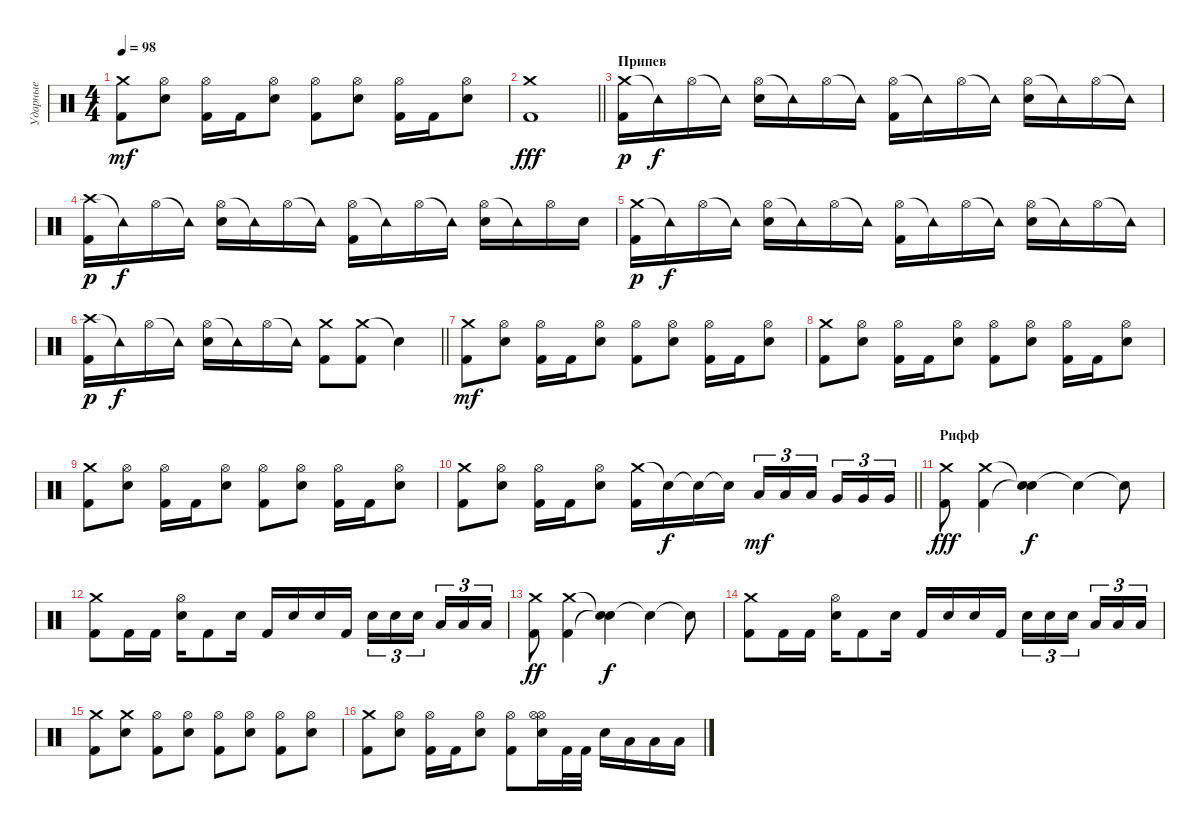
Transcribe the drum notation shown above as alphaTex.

\track ("Ударные" "Ударные") {instrument percussion}
\staff {score}
\articulation defaults
\ts (4 4)
\tempo 98
\clef neutral
\ks c
("Crash medium (hit)" "Kick (hit) 2").8{dy mf} ("Hi-Hat (open)" "Snare (hit) 2").8 ("Hi-Hat (open)" "Kick (hit) 2").16 "Kick (hit) 2".16 ("Hi-Hat (open)" "Snare (hit) 2").8 ("Hi-Hat (open)" "Kick (hit) 2").8 ("Hi-Hat (open)" "Snare (hit) 2").8 ("Hi-Hat (open)" "Kick (hit) 2").16 "Kick (hit) 2".16 ("Hi-Hat (open)" "Snare (hit) 2").8 |
\barLineRight lightlight
("Crash medium (hit)" "Kick (hit) 2").1{dy fff} |
\section ("" "Припев")
("Crash medium (hit)" "Kick (hit) 2").16{dy p} "Tambourine (hit)"{t}.16{dy f} "Hi-Hat (open)".16 "Tambourine (hit)"{t}.16 ("Hi-Hat (open)" "Snare (hit) 2").16 "Tambourine (hit)"{t}.16 "Hi-Hat (open)".16 "Tambourine (hit)"{t}.16 ("Hi-Hat (open)" "Kick (hit) 2").16 "Tambourine (hit)"{t}.16 "Hi-Hat (open)".16 "Tambourine (hit)"{t}.16 ("Hi-Hat (open)" "Snare (hit) 2").16 "Tambourine (hit)"{t}.16 "Hi-Hat (open)".16 "Tambourine (hit)"{t}.16 |
("Crash high (hit)" "Kick (hit) 2").16{dy p} "Tambourine (hit)"{t}.16{dy f} "Hi-Hat (open)".16 "Tambourine (hit)"{t}.16 ("Hi-Hat (open)" "Snare (hit) 2").16 "Tambourine (hit)"{t}.16 "Hi-Hat (open)".16 "Tambourine (hit)"{t}.16 ("Hi-Hat (open)" "Kick (hit) 2").16 "Tambourine (hit)"{t}.16 "Hi-Hat (open)".16 "Tambourine (hit)"{t}.16 ("Hi-Hat (open)" "Snare (hit) 2").16 "Tambourine (hit)"{t}.16 "Hi-Hat (open)".16 "Snare (hit) 2".16 |
("Crash medium (hit)" "Kick (hit) 2").16{dy p} "Tambourine (hit)"{t}.16{dy f} "Hi-Hat (open)".16 "Tambourine (hit)"{t}.16 ("Hi-Hat (open)" "Snare (hit) 2").16 "Tambourine (hit)"{t}.16 "Hi-Hat (open)".16 "Tambourine (hit)"{t}.16 ("Hi-Hat (open)" "Kick (hit) 2").16 "Tambourine (hit)"{t}.16 "Hi-Hat (open)".16 "Tambourine (hit)"{t}.16 ("Hi-Hat (open)" "Snare (hit) 2").16 "Tambourine (hit)"{t}.16 "Hi-Hat (open)".16 "Tambourine (hit)"{t}.16 |
\barLineRight lightlight
("Crash high (hit)" "Kick (hit) 2").16{dy p} "Tambourine (hit)"{t}.16{dy f} "Hi-Hat (open)".16 "Tambourine (hit)"{t}.16 ("Hi-Hat (open)" "Snare (hit) 2").16 "Tambourine (hit)"{t}.16 "Hi-Hat (open)".16 "Tambourine (hit)"{t}.16 ("Crash medium (hit)" "Kick (hit) 2").8 ("Crash medium (hit)" "Kick (hit) 2").8 "Snare (hit)"{t}.4 |
("Crash medium (hit)" "Kick (hit) 2").8{dy mf} ("Hi-Hat (open)" "Snare (hit) 2").8 ("Hi-Hat (open)" "Kick (hit) 2").16 "Kick (hit) 2".16 ("Hi-Hat (open)" "Snare (hit) 2").8 ("Hi-Hat (open)" "Kick (hit) 2").8 ("Hi-Hat (open)" "Snare (hit) 2").8 ("Hi-Hat (open)" "Kick (hit) 2").16 "Kick (hit) 2".16 ("Hi-Hat (open)" "Snare (hit) 2").8 |
("Crash medium (hit)" "Kick (hit) 2").8 ("Hi-Hat (open)" "Snare (hit) 2").8 ("Hi-Hat (open)" "Kick (hit) 2").16 "Kick (hit) 2".16 ("Hi-Hat (open)" "Snare (hit) 2").8 ("Hi-Hat (open)" "Kick (hit) 2").8 ("Hi-Hat (open)" "Snare (hit) 2").8 ("Hi-Hat (open)" "Kick (hit) 2").16 "Kick (hit) 2".16 ("Hi-Hat (open)" "Snare (hit) 2").8 |
("Crash medium (hit)" "Kick (hit) 2").8 ("Hi-Hat (open)" "Snare (hit) 2").8 ("Hi-Hat (open)" "Kick (hit) 2").16 "Kick (hit) 2".16 ("Hi-Hat (open)" "Snare (hit) 2").8 ("Hi-Hat (open)" "Kick (hit) 2").8 ("Hi-Hat (open)" "Snare (hit) 2").8 ("Hi-Hat (open)" "Kick (hit) 2").16 "Kick (hit) 2".16 ("Hi-Hat (open)" "Snare (hit) 2").8 |
\barLineRight lightlight
("Crash medium (hit)" "Kick (hit) 2").8 ("Hi-Hat (open)" "Snare (hit) 2").8 ("Hi-Hat (open)" "Kick (hit) 2").16 "Kick (hit) 2".16 ("Hi-Hat (open)" "Snare (hit) 2").8 ("Crash medium (hit)" "Kick (hit) 2").16 "Snare (hit) 2"{t}.16{dy f} "Snare (hit) 2"{t}.16 "Snare (hit) 2"{t}.16 "Low Tom (hit)".16{tu (3 2) dy mf} "Low Tom (hit)".16{tu (3 2)} "Low Tom (hit)".16{tu (3 2) beam splitsecondary} "Very Low Tom (hit)".16{tu (3 2)} "Very Low Tom (hit)".16{tu (3 2)} "Very Low Tom (hit)".16{tu (3 2)} |
\section ("" "Рифф")
("Crash medium (hit)" "Kick (hit) 2").8{dy fff} ("Kick (hit) 2" "Crash medium (hit)").4 ("Snare (hit)"{t} "Snare (hit)"{t}).4{dy f} "Snare (hit)"{t}.4 "Snare (hit)"{t}.8 |
("Crash medium (hit)" "Kick (hit) 2").8 "Kick (hit) 2".16 "Kick (hit) 2".16 ("Hi-Hat (open)" "Snare (hit) 2").16 "Kick (hit) 2".8 "Snare (hit) 2".16 "Kick (hit) 2".16 "Snare (hit) 2".16 "Snare (hit) 2".16 "Kick (hit) 2".16 "Snare (hit) 2".16{tu (3 2)} "Snare (hit) 2".16{tu (3 2)} "Snare (hit) 2".16{tu (3 2) beam splitsecondary} "Low Tom (hit)".16{tu (3 2)} "Low Tom (hit)".16{tu (3 2)} "Low Tom (hit)".16{tu (3 2)} |
("Crash medium (hit)" "Kick (hit) 2").8{dy ff} ("Kick (hit) 2" "Crash medium (hit)").4 ("Snare (hit)"{t} "Snare (hit)"{t}).4{dy f} "Snare (hit)"{t}.4 "Snare (hit)"{t}.8 |
("Crash medium (hit)" "Kick (hit) 2").8 "Kick (hit) 2".16 "Kick (hit) 2".16 ("Hi-Hat (open)" "Snare (hit) 2").16 "Kick (hit) 2".8 "Snare (hit) 2".16 "Kick (hit) 2".16 "Snare (hit) 2".16 "Snare (hit) 2".16 "Kick (hit) 2".16 "Snare (hit) 2".16{tu (3 2)} "Snare (hit) 2".16{tu (3 2)} "Snare (hit) 2".16{tu (3 2) beam splitsecondary} "Low Tom (hit)".16{tu (3 2)} "Low Tom (hit)".16{tu (3 2)} "Low Tom (hit)".16{tu (3 2)} |
("Crash medium (hit)" "Kick (hit) 2").8 ("Crash medium (hit)" "Snare (hit) 2").8 ("Hi-Hat (open)" "Kick (hit) 2").8 ("Hi-Hat (open)" "Snare (hit) 2").8 ("Hi-Hat (open)" "Kick (hit) 2").8 ("Hi-Hat (open)" "Snare (hit) 2").8 ("Hi-Hat (open)" "Kick (hit) 2").8 ("Hi-Hat (open)" "Snare (hit) 2").8 |
("Crash medium (hit)" "Kick (hit) 2").8 ("Hi-Hat (open)" "Snare (hit) 2").8 ("Hi-Hat (open)" "Kick (hit) 2").16 "Kick (hit) 2".16 ("Hi-Hat (open)" "Snare (hit) 2").8 ("Hi-Hat (open)" "Kick (hit) 2").8 ("Hi-Hat (open)" "Hi-Hat (open)" "Snare (hit) 2").16 "Kick (hit) 2".32 "Kick (hit) 2".32 "Snare (hit) 2".16 "Low Tom (hit)".16 "Low Tom (hit)".16 "Low Tom (hit)".16
